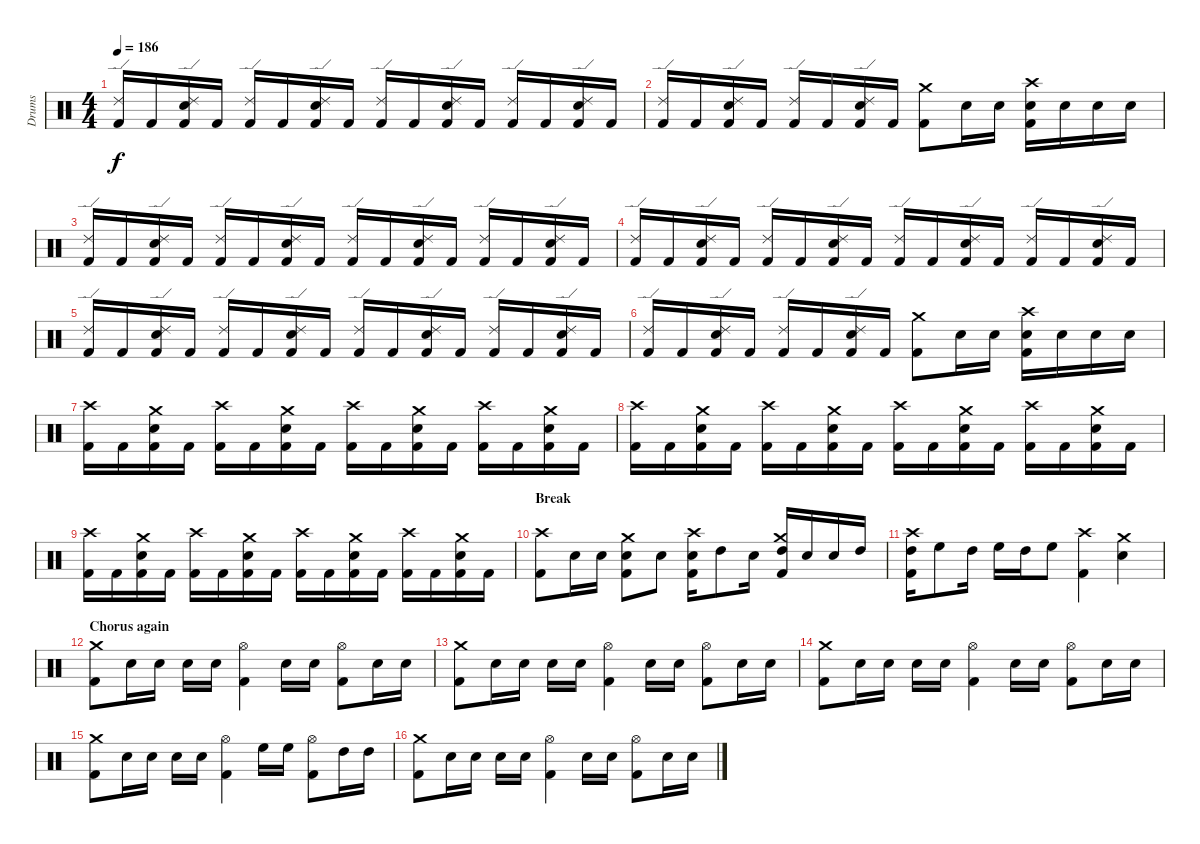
\track ("Drums" "Drums") {instrument percussion}
\staff {score}
\articulation defaults
\ts (4 4)
\tempo 186
\clef neutral
\ks c
("Ride (edge) 2" "Kick (hit) 2").16{dy f} "Kick (hit) 2".16 ("Electric Snare (hit)" "Ride (edge) 2" "Kick (hit) 2").16 "Kick (hit) 2".16 ("Ride (edge) 2" "Kick (hit) 2").16 "Kick (hit) 2".16 ("Electric Snare (hit)" "Ride (edge) 2" "Kick (hit) 2").16 "Kick (hit) 2".16 ("Ride (edge) 2" "Kick (hit) 2").16 "Kick (hit) 2".16 ("Electric Snare (hit)" "Ride (edge) 2" "Kick (hit) 2").16 "Kick (hit) 2".16 ("Ride (edge) 2" "Kick (hit) 2").16 "Kick (hit) 2".16 ("Electric Snare (hit)" "Ride (edge) 2" "Kick (hit) 2").16 "Kick (hit) 2".16 |
("Ride (edge) 2" "Kick (hit) 2").16 "Kick (hit) 2".16 ("Electric Snare (hit)" "Ride (edge) 2" "Kick (hit) 2").16 "Kick (hit) 2".16 ("Ride (edge) 2" "Kick (hit) 2").16 "Kick (hit) 2".16 ("Electric Snare (hit)" "Ride (edge) 2" "Kick (hit) 2").16 "Kick (hit) 2".16 ("Crash medium (hit)" "Kick (hit) 2").8 "Electric Snare (hit)".16 "Electric Snare (hit)".16 ("Crash high (hit)" "Electric Snare (hit)" "Kick (hit) 2").16 "Electric Snare (hit)".16 "Electric Snare (hit)".16 "Electric Snare (hit)".16 |
("Ride (edge) 2" "Kick (hit) 2").16 "Kick (hit) 2".16 ("Electric Snare (hit)" "Ride (edge) 2" "Kick (hit) 2").16 "Kick (hit) 2".16 ("Ride (edge) 2" "Kick (hit) 2").16 "Kick (hit) 2".16 ("Electric Snare (hit)" "Ride (edge) 2" "Kick (hit) 2").16 "Kick (hit) 2".16 ("Ride (edge) 2" "Kick (hit) 2").16 "Kick (hit) 2".16 ("Electric Snare (hit)" "Ride (edge) 2" "Kick (hit) 2").16 "Kick (hit) 2".16 ("Ride (edge) 2" "Kick (hit) 2").16 "Kick (hit) 2".16 ("Electric Snare (hit)" "Ride (edge) 2" "Kick (hit) 2").16 "Kick (hit) 2".16 |
("Ride (edge) 2" "Kick (hit) 2").16 "Kick (hit) 2".16 ("Electric Snare (hit)" "Ride (edge) 2" "Kick (hit) 2").16 "Kick (hit) 2".16 ("Ride (edge) 2" "Kick (hit) 2").16 "Kick (hit) 2".16 ("Electric Snare (hit)" "Ride (edge) 2" "Kick (hit) 2").16 "Kick (hit) 2".16 ("Ride (edge) 2" "Kick (hit) 2").16 "Kick (hit) 2".16 ("Electric Snare (hit)" "Ride (edge) 2" "Kick (hit) 2").16 "Kick (hit) 2".16 ("Ride (edge) 2" "Kick (hit) 2").16 "Kick (hit) 2".16 ("Electric Snare (hit)" "Ride (edge) 2" "Kick (hit) 2").16 "Kick (hit) 2".16 |
("Ride (edge) 2" "Kick (hit) 2").16 "Kick (hit) 2".16 ("Electric Snare (hit)" "Ride (edge) 2" "Kick (hit) 2").16 "Kick (hit) 2".16 ("Ride (edge) 2" "Kick (hit) 2").16 "Kick (hit) 2".16 ("Electric Snare (hit)" "Ride (edge) 2" "Kick (hit) 2").16 "Kick (hit) 2".16 ("Ride (edge) 2" "Kick (hit) 2").16 "Kick (hit) 2".16 ("Electric Snare (hit)" "Ride (edge) 2" "Kick (hit) 2").16 "Kick (hit) 2".16 ("Ride (edge) 2" "Kick (hit) 2").16 "Kick (hit) 2".16 ("Electric Snare (hit)" "Ride (edge) 2" "Kick (hit) 2").16 "Kick (hit) 2".16 |
("Ride (edge) 2" "Kick (hit) 2").16 "Kick (hit) 2".16 ("Electric Snare (hit)" "Ride (edge) 2" "Kick (hit) 2").16 "Kick (hit) 2".16 ("Ride (edge) 2" "Kick (hit) 2").16 "Kick (hit) 2".16 ("Electric Snare (hit)" "Ride (edge) 2" "Kick (hit) 2").16 "Kick (hit) 2".16 ("Crash medium (hit)" "Kick (hit) 2").8 "Electric Snare (hit)".16 "Electric Snare (hit)".16 ("Crash high (hit)" "Electric Snare (hit)" "Kick (hit) 2").16 "Electric Snare (hit)".16 "Electric Snare (hit)".16 "Electric Snare (hit)".16 |
("Crash high (hit)" "Kick (hit) 2").16 "Kick (hit) 2".16 ("Crash medium (hit)" "Electric Snare (hit)" "Kick (hit) 2").16 "Kick (hit) 2".16 ("Crash high (hit)" "Kick (hit) 2").16 "Kick (hit) 2".16 ("Crash medium (hit)" "Electric Snare (hit)" "Kick (hit) 2").16 "Kick (hit) 2".16 ("Crash high (hit)" "Kick (hit) 2").16 "Kick (hit) 2".16 ("Crash medium (hit)" "Electric Snare (hit)" "Kick (hit) 2").16 "Kick (hit) 2".16 ("Crash high (hit)" "Kick (hit) 2").16 "Kick (hit) 2".16 ("Crash medium (hit)" "Electric Snare (hit)" "Kick (hit) 2").16 "Kick (hit) 2".16 |
("Crash high (hit)" "Kick (hit) 2").16 "Kick (hit) 2".16 ("Crash medium (hit)" "Electric Snare (hit)" "Kick (hit) 2").16 "Kick (hit) 2".16 ("Crash high (hit)" "Kick (hit) 2").16 "Kick (hit) 2".16 ("Crash medium (hit)" "Electric Snare (hit)" "Kick (hit) 2").16 "Kick (hit) 2".16 ("Crash high (hit)" "Kick (hit) 2").16 "Kick (hit) 2".16 ("Crash medium (hit)" "Electric Snare (hit)" "Kick (hit) 2").16 "Kick (hit) 2".16 ("Crash high (hit)" "Kick (hit) 2").16 "Kick (hit) 2".16 ("Crash medium (hit)" "Electric Snare (hit)" "Kick (hit) 2").16 "Kick (hit) 2".16 |
("Crash high (hit)" "Kick (hit) 2").16 "Kick (hit) 2".16 ("Crash medium (hit)" "Electric Snare (hit)" "Kick (hit) 2").16 "Kick (hit) 2".16 ("Crash high (hit)" "Kick (hit) 2").16 "Kick (hit) 2".16 ("Crash medium (hit)" "Electric Snare (hit)" "Kick (hit) 2").16 "Kick (hit) 2".16 ("Crash high (hit)" "Kick (hit) 2").16 "Kick (hit) 2".16 ("Crash medium (hit)" "Electric Snare (hit)" "Kick (hit) 2").16 "Kick (hit) 2".16 ("Crash high (hit)" "Kick (hit) 2").16 "Kick (hit) 2".16 ("Crash medium (hit)" "Electric Snare (hit)" "Kick (hit) 2").16 "Kick (hit) 2".16 |
\section ("" "Break")
("Crash high (hit)" "Kick (hit) 2").8 "Electric Snare (hit)".16 "Electric Snare (hit)".16 ("Crash medium (hit)" "Electric Snare (hit)" "Kick (hit) 2").8 "Electric Snare (hit)".8 ("Crash high (hit)" "Electric Snare (hit)" "Kick (hit) 2").16 "High Tom (hit)".8 "Electric Snare (hit)".16 ("Crash medium (hit)" "High Tom (hit)" "Kick (hit) 2").16 "Electric Snare (hit)".16 "Electric Snare (hit)".16 "High Tom (hit)".16 |
("Crash high (hit)" "High Tom (hit)" "Kick (hit) 2").16 "High Floor Tom (hit)".8 "High Tom (hit)".16 "High Floor Tom (hit)".16 "High Tom (hit)".16 "High Floor Tom (hit)".8 ("Crash high (hit)" "Kick (hit) 2").4 ("Crash medium (hit)" "Electric Snare (hit)").4 |
\section ("" "Chorus again")
("Crash medium (hit)" "Kick (hit) 2").8 "Electric Snare (hit)".16 "Electric Snare (hit)".16 "Electric Snare (hit)".16 "Electric Snare (hit)".16 ("Hi-Hat (open)" "Kick (hit) 2").4 "Electric Snare (hit)".16 "Electric Snare (hit)".16 ("Hi-Hat (open)" "Kick (hit) 2").8 "Electric Snare (hit)".16 "Electric Snare (hit)".16 |
("Crash medium (hit)" "Kick (hit) 2").8 "Electric Snare (hit)".16 "Electric Snare (hit)".16 "Electric Snare (hit)".16 "Electric Snare (hit)".16 ("Hi-Hat (open)" "Kick (hit) 2").4 "Electric Snare (hit)".16 "Electric Snare (hit)".16 ("Hi-Hat (open)" "Kick (hit) 2").8 "Electric Snare (hit)".16 "Electric Snare (hit)".16 |
("Crash medium (hit)" "Kick (hit) 2").8 "Electric Snare (hit)".16 "Electric Snare (hit)".16 "Electric Snare (hit)".16 "Electric Snare (hit)".16 ("Hi-Hat (open)" "Kick (hit) 2").4 "Electric Snare (hit)".16 "Electric Snare (hit)".16 ("Hi-Hat (open)" "Kick (hit) 2").8 "Electric Snare (hit)".16 "Electric Snare (hit)".16 |
("Crash medium (hit)" "Kick (hit) 2").8 "Electric Snare (hit)".16 "Electric Snare (hit)".16 "Electric Snare (hit)".16 "Electric Snare (hit)".16 ("Hi-Hat (open)" "Kick (hit) 2").4 "High Floor Tom (hit)".16 "High Floor Tom (hit)".16 ("Hi-Hat (open)" "Kick (hit) 2").8 "High Tom (hit)".16 "High Tom (hit)".16 |
("Crash medium (hit)" "Kick (hit) 2").8 "Electric Snare (hit)".16 "Electric Snare (hit)".16 "Electric Snare (hit)".16 "Electric Snare (hit)".16 ("Hi-Hat (open)" "Kick (hit) 2").4 "Electric Snare (hit)".16 "Electric Snare (hit)".16 ("Hi-Hat (open)" "Kick (hit) 2").8 "Electric Snare (hit)".16 "Electric Snare (hit)".16
